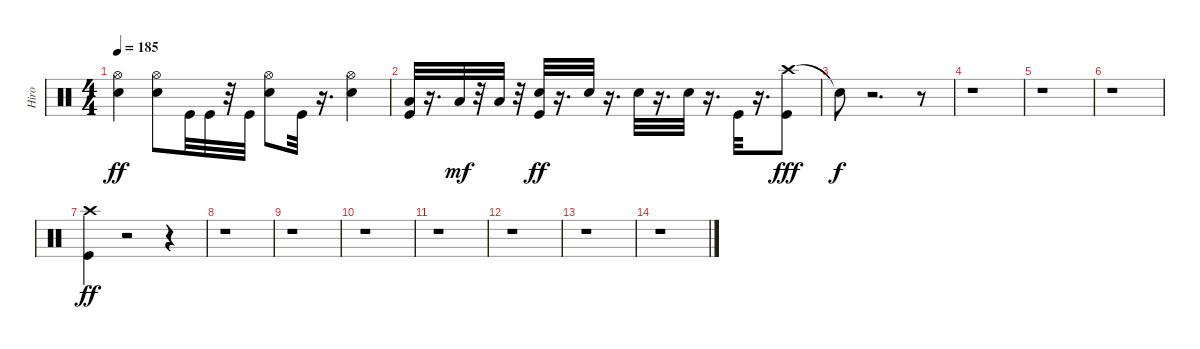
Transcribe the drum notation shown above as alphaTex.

\track ("Hiro" "Hiro") {instrument percussion}
\staff {score}
\articulation defaults
\ts (4 4)
\tempo 185
\clef neutral
\ks c
("Hi-Hat (open)" "Electric Snare (hit)").4{dy ff} ("Hi-Hat (open)" "Electric Snare (hit)").8 "Kick (hit)".32 "Kick (hit)".32 r.32 "Kick (hit)".32 ("Hi-Hat (open)" "Electric Snare (hit)").8 "Kick (hit)".32 r.16{d} ("Hi-Hat (open)" "Electric Snare (hit)").4 |
("Kick (hit)" "Low Tom (hit)").32 r.16{d} "Low Tom (hit)".32{dy mf} r.32 "Low Tom (hit)".32 r.32 ("Kick (hit)" "Snare (hit) 2").32{dy ff} r.16{d} "Snare (hit) 2".32 r.16{d} "Snare (hit) 2".32 r.16{d} "Snare (hit) 2".32 r.16{d} "Kick (hit)".32 r.16{d} ("Crash high (hit)" "Kick (hit)").8{dy fff} |
"Snare (hit)"{t}.8{dy f} r.2{d} r.8 |
r.1 |
r.1 |
r.1 |
("Kick (hit)" "Crash high (hit)").4{dy ff} r.2 r.4 |
r.1 |
r.1 |
r.1 |
r.1 |
r.1 |
r.1 |
r.1
